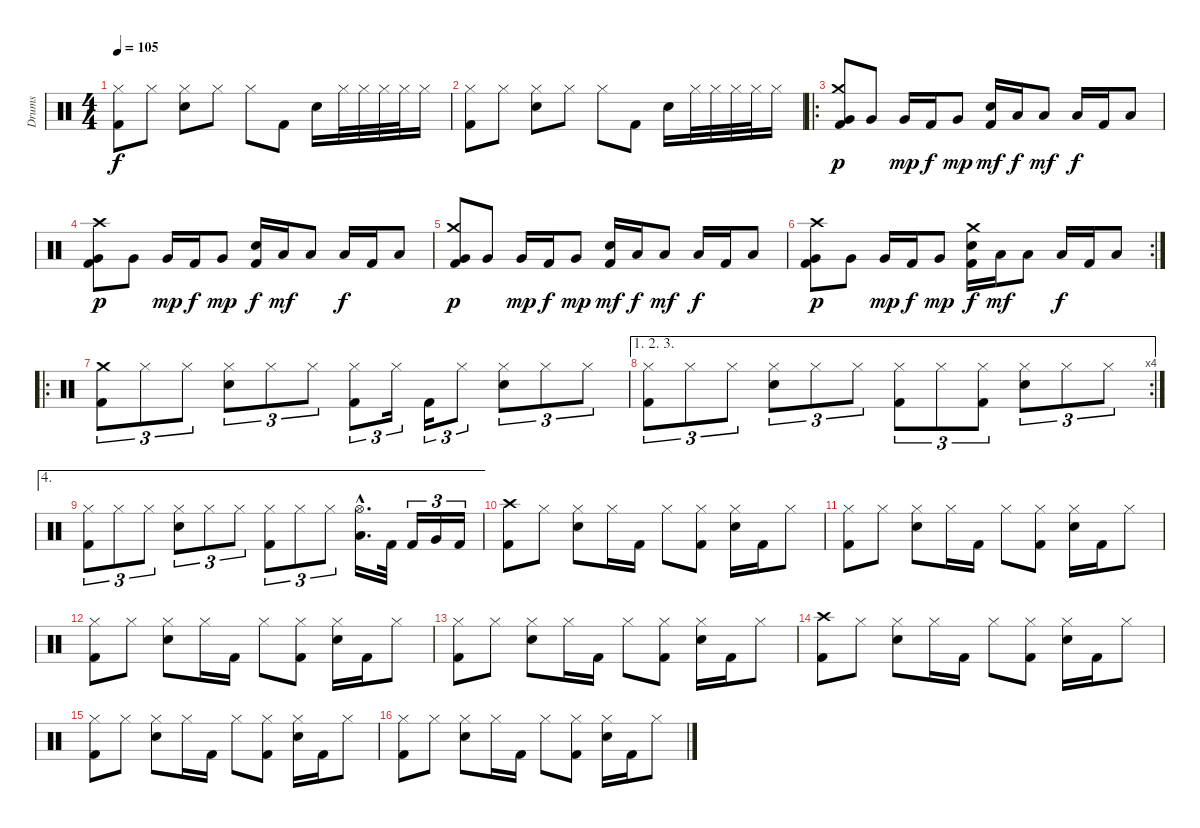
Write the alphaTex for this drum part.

\track ("Drums" "Drums") {instrument percussion}
\staff {score}
\articulation defaults
\ts (4 4)
\tempo 105
\clef neutral
\ks c
("Hi-Hat (closed)" "Kick (hit) 2").8{dy f} "Hi-Hat (closed)".8 ("Hi-Hat (closed)" "Electric Snare (hit)").8 "Hi-Hat (closed)".8 "Hi-Hat (closed)".8 "Kick (hit) 2".8 "Electric Snare (hit)".16 "Hi-Hat (closed)".32 "Hi-Hat (closed)".32 "Hi-Hat (closed)".32 "Hi-Hat (closed)".32 "Hi-Hat (closed)".16 |
("Hi-Hat (closed)" "Kick (hit) 2").8 "Hi-Hat (closed)".8 ("Hi-Hat (closed)" "Electric Snare (hit)").8 "Hi-Hat (closed)".8 "Hi-Hat (closed)".8 "Kick (hit) 2".8 "Electric Snare (hit)".16 "Hi-Hat (closed)".32 "Hi-Hat (closed)".32 "Hi-Hat (closed)".32 "Hi-Hat (closed)".32 "Hi-Hat (closed)".16 |
\ro
("Crash medium (hit)" "Very Low Tom (hit)" "Kick (hit) 2").8{dy p} "Very Low Tom (hit)".8 "Very Low Tom (hit)".16{dy mp} "Kick (hit) 2".16{dy f} "Very Low Tom (hit)".8{dy mp} ("Electric Snare (hit)" "Kick (hit) 2").16{dy mf} "Low Tom (hit)".16{dy f} "Low Tom (hit)".8{dy mf} "Low Tom (hit)".16{dy f} "Kick (hit) 2".16 "Low Tom (hit)".8 |
("Crash high (hit)" "Very Low Tom (hit)" "Kick (hit) 2").8{dy p} "Very Low Tom (hit)".8 "Very Low Tom (hit)".16{dy mp} "Kick (hit) 2".16{dy f} "Very Low Tom (hit)".8{dy mp} ("Electric Snare (hit)" "Kick (hit) 2").16{dy f} "Low Tom (hit)".16{dy mf} "Low Tom (hit)".8 "Low Tom (hit)".16{dy f} "Kick (hit) 2".16 "Low Tom (hit)".8 |
("Crash medium (hit)" "Very Low Tom (hit)" "Kick (hit) 2").8{dy p} "Very Low Tom (hit)".8 "Very Low Tom (hit)".16{dy mp} "Kick (hit) 2".16{dy f} "Very Low Tom (hit)".8{dy mp} ("Electric Snare (hit)" "Kick (hit) 2").16{dy mf} "Low Tom (hit)".16{dy f} "Low Tom (hit)".8{dy mf} "Low Tom (hit)".16{dy f} "Kick (hit) 2".16 "Low Tom (hit)".8 |
\rc 2
("Crash high (hit)" "Very Low Tom (hit)" "Kick (hit) 2").8{dy p} "Very Low Tom (hit)".8 "Very Low Tom (hit)".16{dy mp} "Kick (hit) 2".16{dy f} "Very Low Tom (hit)".8{dy mp} ("Crash medium (hit)" "Electric Snare (hit)" "Kick (hit) 2").16{dy f} "Low Tom (hit)".16{dy mf} "Low Tom (hit)".8 "Low Tom (hit)".16{dy f} "Kick (hit) 2".16 "Low Tom (hit)".8 |
\ro
("Crash medium (hit)" "Kick (hit) 2").8{tu (3 2)} "Hi-Hat (closed)".8{tu (3 2)} "Hi-Hat (closed)".8{tu (3 2)} ("Hi-Hat (closed)" "Electric Snare (hit)").8{tu (3 2)} "Hi-Hat (closed)".8{tu (3 2)} "Hi-Hat (closed)".8{tu (3 2)} ("Hi-Hat (closed)" "Kick (hit) 2").8{tu (3 2)} "Hi-Hat (closed)".16{tu (3 2)} "Kick (hit) 2".16{tu (3 2)} "Hi-Hat (closed)".8{tu (3 2)} ("Hi-Hat (closed)" "Electric Snare (hit)").8{tu (3 2)} "Hi-Hat (closed)".8{tu (3 2)} "Hi-Hat (closed)".8{tu (3 2)} |
\ae (1 2 3)
\rc 4
("Hi-Hat (closed)" "Kick (hit) 2").8{tu (3 2)} "Hi-Hat (closed)".8{tu (3 2)} "Hi-Hat (closed)".8{tu (3 2)} ("Hi-Hat (closed)" "Electric Snare (hit)").8{tu (3 2)} "Hi-Hat (closed)".8{tu (3 2)} "Hi-Hat (closed)".8{tu (3 2)} ("Hi-Hat (closed)" "Kick (hit) 2").8{tu (3 2)} "Hi-Hat (closed)".8{tu (3 2)} ("Hi-Hat (closed)" "Kick (hit) 2").8{tu (3 2)} ("Hi-Hat (closed)" "Electric Snare (hit)").8{tu (3 2)} "Hi-Hat (closed)".8{tu (3 2)} "Hi-Hat (closed)".8{tu (3 2)} |
\ae 4
("Hi-Hat (closed)" "Kick (hit) 2").8{tu (3 2)} "Hi-Hat (closed)".8{tu (3 2)} "Hi-Hat (closed)".8{tu (3 2)} ("Hi-Hat (closed)" "Electric Snare (hit)").8{tu (3 2)} "Hi-Hat (closed)".8{tu (3 2)} "Hi-Hat (closed)".8{tu (3 2)} ("Hi-Hat (closed)" "Kick (hit) 2").8{tu (3 2)} "Hi-Hat (closed)".8{tu (3 2)} "Hi-Hat (closed)".8{tu (3 2)} ("Hi-Hat (open)"{hac} "Low Tom (hit)"{hac}).16{d} "Kick (hit) 2".32 "Kick (hit) 2".16{tu (3 2)} "Very Low Tom (hit)".16{tu (3 2)} "Kick (hit) 2".16{tu (3 2)} |
("Crash high (hit)" "Kick (hit) 2").8 "Hi-Hat (closed)".8 ("Hi-Hat (closed)" "Electric Snare (hit)").8 "Hi-Hat (closed)".16 "Kick (hit) 2".16 "Hi-Hat (closed)".8 ("Hi-Hat (closed)" "Kick (hit) 2").8 ("Hi-Hat (closed)" "Electric Snare (hit)").16 "Kick (hit) 2".16 "Hi-Hat (closed)".8 |
("Hi-Hat (closed)" "Kick (hit) 2").8 "Hi-Hat (closed)".8 ("Hi-Hat (closed)" "Electric Snare (hit)").8 "Hi-Hat (closed)".16 "Kick (hit) 2".16 "Hi-Hat (closed)".8 ("Hi-Hat (closed)" "Kick (hit) 2").8 ("Hi-Hat (closed)" "Electric Snare (hit)").16 "Kick (hit) 2".16 "Hi-Hat (closed)".8 |
("Hi-Hat (closed)" "Kick (hit) 2").8 "Hi-Hat (closed)".8 ("Hi-Hat (closed)" "Electric Snare (hit)").8 "Hi-Hat (closed)".16 "Kick (hit) 2".16 "Hi-Hat (closed)".8 ("Hi-Hat (closed)" "Kick (hit) 2").8 ("Hi-Hat (closed)" "Electric Snare (hit)").16 "Kick (hit) 2".16 "Hi-Hat (closed)".8 |
("Hi-Hat (closed)" "Kick (hit) 2").8 "Hi-Hat (closed)".8 ("Hi-Hat (closed)" "Electric Snare (hit)").8 "Hi-Hat (closed)".16 "Kick (hit) 2".16 "Hi-Hat (closed)".8 ("Hi-Hat (closed)" "Kick (hit) 2").8 ("Hi-Hat (closed)" "Electric Snare (hit)").16 "Kick (hit) 2".16 "Hi-Hat (closed)".8 |
("Crash high (hit)" "Kick (hit) 2").8 "Hi-Hat (closed)".8 ("Hi-Hat (closed)" "Electric Snare (hit)").8 "Hi-Hat (closed)".16 "Kick (hit) 2".16 "Hi-Hat (closed)".8 ("Hi-Hat (closed)" "Kick (hit) 2").8 ("Hi-Hat (closed)" "Electric Snare (hit)").16 "Kick (hit) 2".16 "Hi-Hat (closed)".8 |
("Hi-Hat (closed)" "Kick (hit) 2").8 "Hi-Hat (closed)".8 ("Hi-Hat (closed)" "Electric Snare (hit)").8 "Hi-Hat (closed)".16 "Kick (hit) 2".16 "Hi-Hat (closed)".8 ("Hi-Hat (closed)" "Kick (hit) 2").8 ("Hi-Hat (closed)" "Electric Snare (hit)").16 "Kick (hit) 2".16 "Hi-Hat (closed)".8 |
("Hi-Hat (closed)" "Kick (hit) 2").8 "Hi-Hat (closed)".8 ("Hi-Hat (closed)" "Electric Snare (hit)").8 "Hi-Hat (closed)".16 "Kick (hit) 2".16 "Hi-Hat (closed)".8 ("Hi-Hat (closed)" "Kick (hit) 2").8 ("Hi-Hat (closed)" "Electric Snare (hit)").16 "Kick (hit) 2".16 "Hi-Hat (closed)".8
